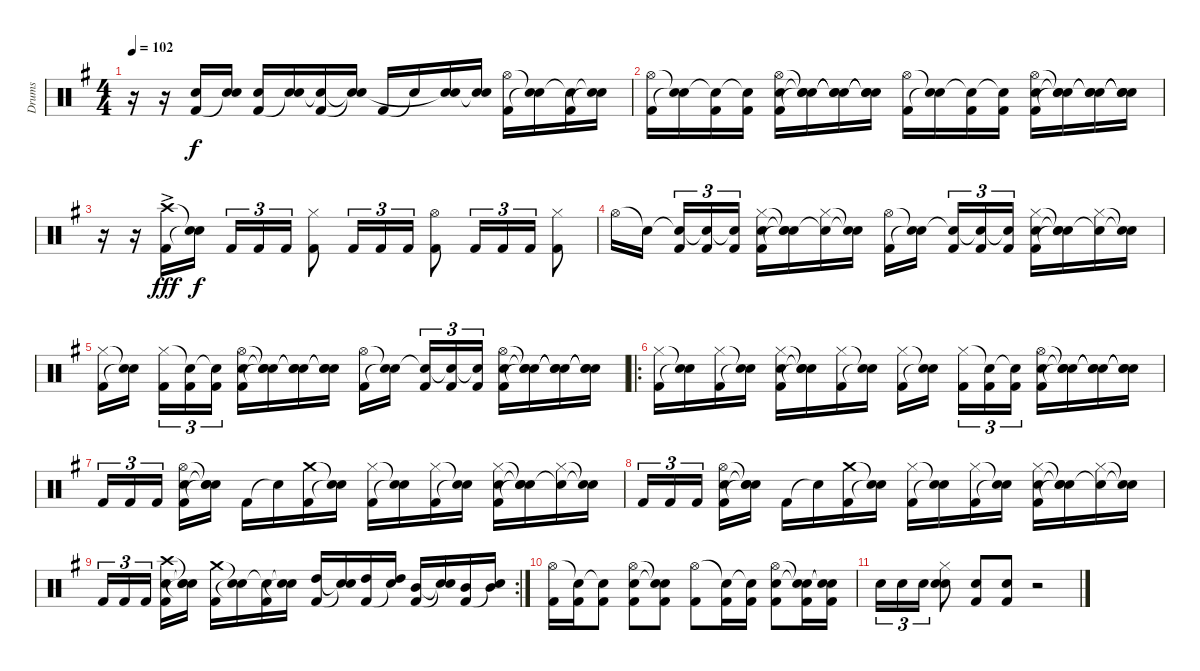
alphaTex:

\track ("Drums" "Drums") {instrument percussion}
\staff {score}
\articulation defaults
\ts (4 4)
\tempo 102
\clef neutral
\ks g
r.16{dy f} r.16 ("Snare (hit) 2" "Kick (hit) 2").16 ("Snare (hit) 2" "Snare (hit)"{t}).16 ("Snare (hit) 2" "Kick (hit) 2").16 ("Snare (hit) 2" "Snare (hit)"{t}).16 ("Snare (hit)"{t} "Kick (hit) 2").16 ("Snare (hit)"{t} "Snare (hit)"{t}).16 "Kick (hit) 2".16 "Snare (hit)"{t}.16 ("Snare (hit) 2" "Snare (hit)"{t}).16 ("Snare (hit) 2" "Snare (hit)"{t}).16 ("Hi-Hat (open)" "Kick (hit) 2").16 ("Snare (hit)"{t} "Snare (hit)"{t}).16 ("Snare (hit)"{t} "Kick (hit) 2").16 ("Snare (hit)"{t} "Snare (hit)"{t}).16 |
("Hi-Hat (open)" "Kick (hit) 2").16 ("Snare (hit)"{t} "Snare (hit)"{t}).16 ("Snare (hit)"{t} "Kick (hit) 2").16 ("Snare (hit)"{t} "Kick (hit) 2").16 ("Hi-Hat (open)" "Snare (hit) 2" "Kick (hit) 2").16 ("Snare (hit)"{t} "Snare (hit)"{t} "Snare (hit)"{t}).16 ("Snare (hit)"{t} "Snare (hit)"{t} "Snare (hit)"{t}).16 ("Snare (hit)"{t} "Snare (hit)"{t} "Snare (hit)"{t}).16 ("Hi-Hat (open)" "Kick (hit) 2").16 ("Snare (hit)"{t} "Snare (hit)"{t}).16 ("Snare (hit)"{t} "Kick (hit) 2").16 ("Snare (hit)"{t} "Kick (hit) 2").16 ("Hi-Hat (open)" "Snare (hit) 2" "Kick (hit) 2").16 ("Snare (hit)"{t} "Snare (hit)"{t} "Snare (hit)"{t}).16 ("Snare (hit)"{t} "Snare (hit) 2" "Snare (hit)"{t}).16 ("Snare (hit)"{t} "Snare (hit)"{t} "Snare (hit)"{t}).16 |
r.16 r.16 ("Crash high (hit)"{ac} "Kick (hit) 2").16{dy fff} ("Snare (hit)"{t} "Snare (hit)"{t}).16{dy f} "Kick (hit) 2".16{tu (3 2)} "Kick (hit) 2".16{tu (3 2)} "Kick (hit) 2".16{tu (3 2)} ("Hi-Hat (closed)" "Kick (hit) 2").8 "Kick (hit) 2".16{tu (3 2)} "Kick (hit) 2".16{tu (3 2)} "Kick (hit) 2".16{tu (3 2)} ("Hi-Hat (open)" "Kick (hit) 2").8 "Kick (hit) 2".16{tu (3 2)} "Kick (hit) 2".16{tu (3 2)} "Kick (hit) 2".16{tu (3 2)} ("Hi-Hat (closed)" "Kick (hit) 2").8 |
"Hi-Hat (open)".16 "Snare (hit)"{t}.16 ("Snare (hit)"{t} "Kick (hit) 2").16{tu (3 2)} ("Snare (hit)"{t} "Kick (hit) 2").16{tu (3 2)} ("Snare (hit)"{t} "Kick (hit) 2").16{tu (3 2)} ("Hi-Hat (closed)" "Snare (hit) 2" "Kick (hit) 2").16 ("Snare (hit)"{t} "Snare (hit)"{t} "Snare (hit)"{t}).16 ("Hi-Hat (closed)" "Snare (hit)"{t}).16 ("Snare (hit)"{t} "Snare (hit)"{t}).16 ("Hi-Hat (open)" "Kick (hit) 2").16 ("Snare (hit)"{t} "Snare (hit)"{t}).16 ("Snare (hit)"{t} "Kick (hit) 2").16{tu (3 2)} ("Snare (hit)"{t} "Kick (hit) 2").16{tu (3 2)} ("Snare (hit)"{t} "Kick (hit) 2").16{tu (3 2)} ("Hi-Hat (closed)" "Snare (hit) 2" "Kick (hit) 2").16 ("Snare (hit)"{t} "Snare (hit)"{t} "Snare (hit)"{t}).16 ("Hi-Hat (closed)" "Snare (hit)"{t}).16 ("Snare (hit)"{t} "Snare (hit)"{t}).16 |
("Hi-Hat (closed)" "Kick (hit) 2").16 ("Snare (hit)"{t} "Snare (hit)"{t}).16 ("Hi-Hat (closed)" "Kick (hit) 2").16{tu (3 2)} ("Snare (hit)"{t} "Kick (hit) 2").16{tu (3 2)} ("Snare (hit)"{t} "Kick (hit) 2").16{tu (3 2)} ("Hi-Hat (open)" "Snare (hit) 2" "Kick (hit) 2").16 ("Snare (hit)"{t} "Snare (hit)"{t} "Snare (hit)"{t}).16 ("Snare (hit)"{t} "Snare (hit) 2" "Snare (hit)"{t}).16 ("Snare (hit)"{t} "Snare (hit) 2" "Snare (hit)"{t}).16 ("Hi-Hat (open)" "Kick (hit) 2").16 ("Snare (hit)"{t} "Snare (hit)"{t}).16 ("Snare (hit)"{t} "Kick (hit) 2").16{tu (3 2)} ("Snare (hit)"{t} "Kick (hit) 2").16{tu (3 2)} ("Snare (hit)"{t} "Kick (hit) 2").16{tu (3 2)} ("Hi-Hat (open)" "Snare (hit) 2" "Kick (hit) 2").16 ("Snare (hit)"{t} "Snare (hit)"{t} "Snare (hit)"{t}).16 ("Snare (hit)"{t} "Snare (hit)"{t} "Snare (hit)"{t}).16 ("Snare (hit)"{t} "Snare (hit)"{t} "Snare (hit)"{t}).16 |
\ro
("Hi-Hat (closed)" "Kick (hit) 2").16 ("Snare (hit)"{t} "Snare (hit)"{t}).16 ("Hi-Hat (closed)" "Kick (hit) 2").16 ("Snare (hit)"{t} "Snare (hit)"{t}).16 ("Hi-Hat (closed)" "Snare (hit) 2" "Kick (hit) 2").16 ("Snare (hit)"{t} "Snare (hit)"{t} "Snare (hit)"{t}).16 ("Hi-Hat (closed)" "Kick (hit) 2").16 ("Snare (hit)"{t} "Snare (hit)"{t}).16 ("Hi-Hat (closed)" "Kick (hit) 2").16 ("Snare (hit)"{t} "Snare (hit)"{t}).16 ("Hi-Hat (closed)" "Kick (hit) 2").16{tu (3 2)} ("Snare (hit)"{t} "Kick (hit) 2").16{tu (3 2)} ("Snare (hit)"{t} "Kick (hit) 2").16{tu (3 2)} ("Hi-Hat (open)" "Snare (hit) 2" "Kick (hit) 2").16 ("Snare (hit)"{t} "Snare (hit)"{t} "Snare (hit)"{t}).16 ("Snare (hit)"{t} "Snare (hit)"{t} "Snare (hit)"{t}).16 ("Snare (hit)"{t} "Snare (hit)"{t} "Snare (hit)"{t}).16 |
"Kick (hit) 2".16{tu (3 2)} "Kick (hit) 2".16{tu (3 2)} "Kick (hit) 2".16{tu (3 2)} ("Hi-Hat (open)" "Snare (hit) 2" "Kick (hit) 2").16 ("Snare (hit)"{t} "Snare (hit)"{t} "Snare (hit)"{t}).16 "Kick (hit) 2".16 "Snare (hit)"{t}.16 ("Crash medium (hit)" "Kick (hit) 2").16 ("Snare (hit)"{t} "Snare (hit)"{t}).16 ("Hi-Hat (closed)" "Kick (hit) 2").16 ("Snare (hit)"{t} "Snare (hit)"{t}).16 ("Hi-Hat (closed)" "Kick (hit) 2").16 ("Snare (hit)"{t} "Snare (hit)"{t}).16 ("Hi-Hat (closed)" "Snare (hit) 2" "Kick (hit) 2").16 ("Snare (hit)"{t} "Snare (hit)"{t} "Snare (hit)"{t}).16 ("Hi-Hat (closed)" "Snare (hit)"{t}).16 ("Snare (hit)"{t} "Snare (hit)"{t}).16 |
"Kick (hit) 2".16{tu (3 2)} "Kick (hit) 2".16{tu (3 2)} "Kick (hit) 2".16{tu (3 2)} ("Hi-Hat (open)" "Snare (hit) 2" "Kick (hit) 2").16 ("Snare (hit)"{t} "Snare (hit)"{t} "Snare (hit)"{t}).16 "Kick (hit) 2".16 "Snare (hit)"{t}.16 ("Crash medium (hit)" "Kick (hit) 2").16 ("Snare (hit)"{t} "Snare (hit)"{t}).16 ("Hi-Hat (closed)" "Kick (hit) 2").16 ("Snare (hit)"{t} "Snare (hit)"{t}).16 ("Hi-Hat (closed)" "Kick (hit) 2").16 ("Snare (hit)"{t} "Snare (hit)"{t}).16 ("Hi-Hat (closed)" "Snare (hit) 2" "Kick (hit) 2").16 ("Snare (hit)"{t} "Snare (hit)"{t} "Snare (hit)"{t}).16 ("Hi-Hat (closed)" "Snare (hit)"{t}).16 ("Snare (hit)"{t} "Snare (hit)"{t}).16 |
\rc 2 "Kick (hit) 2".16{tu (3 2)} "Kick (hit) 2".16{tu (3 2)} "Kick (hit) 2".16{tu (3 2)}
("Crash high (hit)" "Snare (hit) 2" "Kick (hit) 2").16 ("Snare (hit)"{t} "Snare (hit)"{t} "Snare (hit)"{t}).16 ("Crash medium (hit)" "Kick (hit) 2").16 ("Snare (hit)"{t} "Snare (hit)"{t}).16 ("Snare (hit)"{t} "Kick (hit) 2").16 ("Snare (hit)"{t} "Snare (hit)"{t}).16 ("High Tom (hit)" "Kick (hit) 2").16 ("Snare (hit)"{t} "Snare (hit)"{t}).16 ("High Tom (hit)" "Kick (hit) 2").16 ("High Tom (hit)" "Snare (hit)"{t}).16 ("Mid Tom (hit)" "Kick (hit) 2").16 ("Snare (hit)"{t} "Snare (hit)"{t}).16 ("Mid Tom (hit)" "Kick (hit) 2").16 ("Mid Tom (hit)" "Snare (hit)"{t}).16 |
("Hi-Hat (open)" "Kick (hit) 2").16 ("Snare (hit)"{t} "Kick (hit) 2").16 ("Snare (hit)"{t} "Kick (hit) 2").8 ("Hi-Hat (open)" "Snare (hit) 2" "Kick (hit) 2").8 ("Snare (hit)"{t} "Snare (hit)"{t} "Kick (hit) 2").8 ("Hi-Hat (open)" "Kick (hit) 2").8 ("Snare (hit)"{t} "Kick (hit) 2").16 ("Snare (hit)"{t} "Kick (hit) 2").16 ("Hi-Hat (open)" "Snare (hit) 2" "Kick (hit) 2").8 ("Snare (hit)"{t} "Snare (hit)"{t} "Kick (hit) 2").16 ("Snare (hit)"{t} "Snare (hit)"{t} "Kick (hit) 2").16 |
"Snare (hit) 2".16{tu (3 2)} "Snare (hit) 2".16{tu (3 2)} "Snare (hit) 2".16{tu (3 2)} ("Hi-Hat (closed)" "Snare (hit) 2" "Snare (hit) 2").8 ("Electric Snare (hit)" "Kick (hit) 2").8 ("Electric Snare (hit)" "Kick (hit) 2").8 r.2
